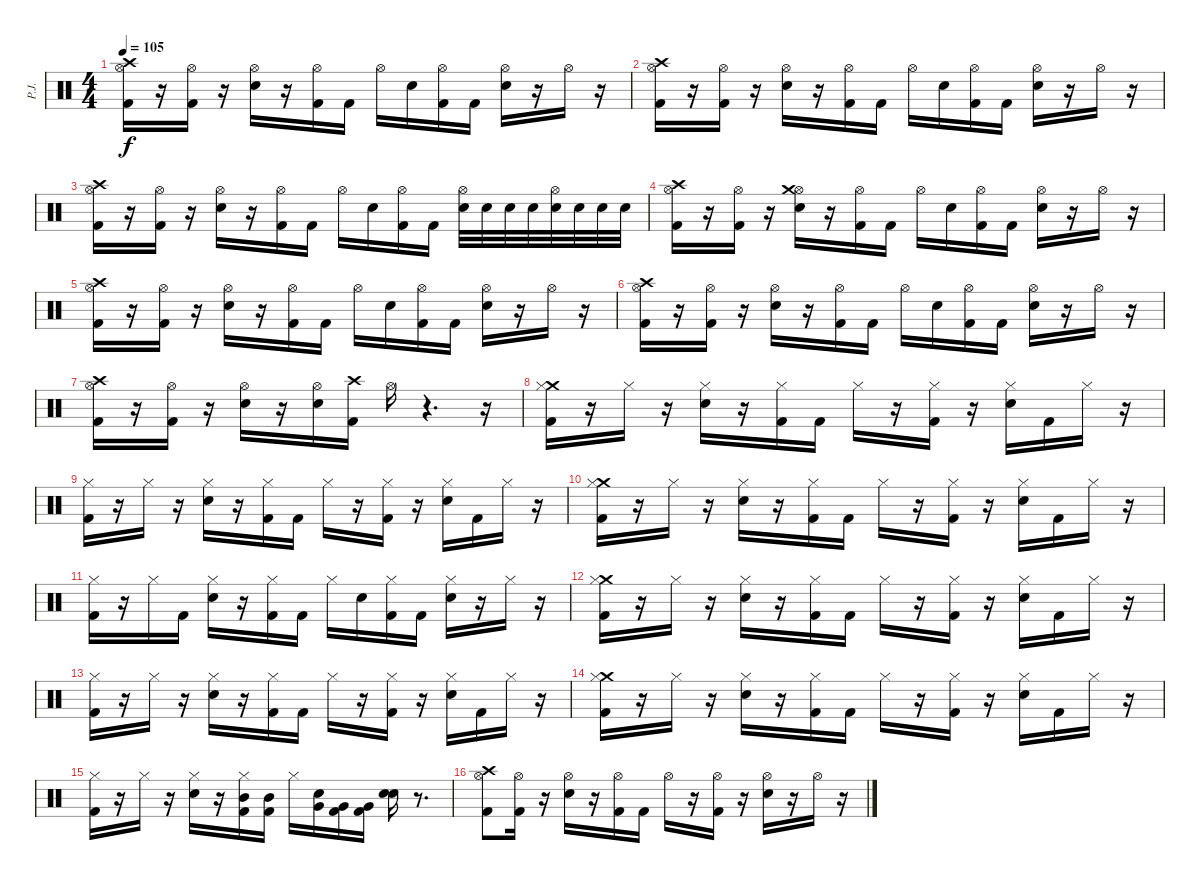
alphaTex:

\track ("P.J." "P.J.") {instrument percussion}
\staff {score}
\articulation defaults
\ts (4 4)
\tempo 105
\clef neutral
\ks c
("Crash high (hit)" "Hi-Hat (open)" "Kick (hit) 2").16{dy f} r.16 ("Kick (hit) 2" "Hi-Hat (open)").16 r.16 ("Electric Snare (hit)" "Hi-Hat (open)").16 r.16 ("Kick (hit) 2" "Hi-Hat (open)").16 "Kick (hit) 2".16 "Hi-Hat (open)".16 "Electric Snare (hit)".16 ("Kick (hit) 2" "Hi-Hat (open)").16 "Kick (hit) 2".16 ("Hi-Hat (open)" "Electric Snare (hit)").16 r.16 "Hi-Hat (open)".16 r.16 |
("Crash high (hit)" "Kick (hit) 2" "Hi-Hat (open)").16 r.16 ("Hi-Hat (open)" "Kick (hit) 2").16 r.16 ("Hi-Hat (open)" "Electric Snare (hit)").16 r.16 ("Kick (hit) 2" "Hi-Hat (open)").16 "Kick (hit) 2".16 "Hi-Hat (open)".16 "Electric Snare (hit)".16 ("Hi-Hat (open)" "Kick (hit) 2").16 "Kick (hit) 2".16 ("Electric Snare (hit)" "Hi-Hat (open)").16 r.16 "Hi-Hat (open)".16 r.16 |
("Hi-Hat (open)" "Kick (hit) 2" "Crash high (hit)").16 r.16 ("Kick (hit) 2" "Hi-Hat (open)").16 r.16 ("Hi-Hat (open)" "Electric Snare (hit)").16 r.16 ("Kick (hit) 2" "Hi-Hat (open)").16 "Kick (hit) 2".16 "Hi-Hat (open)".16 "Electric Snare (hit)".16 ("Hi-Hat (open)" "Kick (hit) 2").16 "Kick (hit) 2".16 ("Electric Snare (hit)" "Hi-Hat (open)").32 "Electric Snare (hit)".32 "Electric Snare (hit)".32 "Electric Snare (hit)".32 ("Electric Snare (hit)" "Hi-Hat (open)").32 "Electric Snare (hit)".32 "Electric Snare (hit)".32 "Electric Snare (hit)".32 |
("Hi-Hat (open)" "Kick (hit) 2" "Crash high (hit)").16 r.16 ("Kick (hit) 2" "Hi-Hat (open)").16 r.16 ("Hi-Hat (open)" "Electric Snare (hit)" "Crash medium (hit)").16 r.16 ("Hi-Hat (open)" "Kick (hit) 2").16 "Kick (hit) 2".16 "Hi-Hat (open)".16 "Electric Snare (hit)".16 ("Kick (hit) 2" "Hi-Hat (open)").16 "Kick (hit) 2".16 ("Hi-Hat (open)" "Electric Snare (hit)").16 r.16 "Hi-Hat (open)".16 r.16 |
("Kick (hit) 2" "Hi-Hat (open)" "Crash high (hit)").16 r.16 ("Kick (hit) 2" "Hi-Hat (open)").16 r.16 ("Hi-Hat (open)" "Electric Snare (hit)").16 r.16 ("Hi-Hat (open)" "Kick (hit) 2").16 "Kick (hit) 2".16 "Hi-Hat (open)".16 "Electric Snare (hit)".16 ("Kick (hit) 2" "Hi-Hat (open)").16 "Kick (hit) 2".16 ("Electric Snare (hit)" "Hi-Hat (open)").16 r.16 "Hi-Hat (open)".16 r.16 |
("Crash high (hit)" "Kick (hit) 2" "Hi-Hat (open)").16 r.16 ("Hi-Hat (open)" "Kick (hit) 2").16 r.16 ("Electric Snare (hit)" "Hi-Hat (open)").16 r.16 ("Hi-Hat (open)" "Kick (hit) 2").16 "Kick (hit) 2".16 "Hi-Hat (open)".16 "Electric Snare (hit)".16 ("Kick (hit) 2" "Hi-Hat (open)").16 "Kick (hit) 2".16 ("Hi-Hat (open)" "Electric Snare (hit)").16 r.16 "Hi-Hat (open)".16 r.16 |
("Hi-Hat (open)" "Kick (hit) 2" "Crash high (hit)").16 r.16 ("Hi-Hat (open)" "Kick (hit) 2").16 r.16 ("Electric Snare (hit)" "Hi-Hat (open)").16 r.16 ("Hi-Hat (open)" "Electric Snare (hit)").16 ("Kick (hit) 2" "Crash high (hit)").16 "Hi-Hat (open)".16 r.4{d} r.16 |
("Crash medium (hit)" "Kick (hit) 2" "Hi-Hat (closed)").16 r.16 "Hi-Hat (closed)".16 r.16 ("Electric Snare (hit)" "Hi-Hat (closed)").16 r.16 ("Kick (hit) 2" "Hi-Hat (closed)").16 "Kick (hit) 2".16 "Hi-Hat (closed)".16 r.16 ("Kick (hit) 2" "Hi-Hat (closed)").16 r.16 ("Electric Snare (hit)" "Hi-Hat (closed)").16 "Kick (hit) 2".16 "Hi-Hat (closed)".16 r.16 |
("Kick (hit) 2" "Hi-Hat (closed)").16 r.16 "Hi-Hat (closed)".16 r.16 ("Electric Snare (hit)" "Hi-Hat (closed)").16 r.16 ("Kick (hit) 2" "Hi-Hat (closed)").16 "Kick (hit) 2".16 "Hi-Hat (closed)".16 r.16 ("Kick (hit) 2" "Hi-Hat (closed)").16 r.16 ("Electric Snare (hit)" "Hi-Hat (closed)").16 "Kick (hit) 2".16 "Hi-Hat (closed)".16 r.16 |
("Kick (hit) 2" "Crash medium (hit)" "Hi-Hat (closed)").16 r.16 "Hi-Hat (closed)".16 r.16 ("Electric Snare (hit)" "Hi-Hat (closed)").16 r.16 ("Kick (hit) 2" "Hi-Hat (closed)").16 "Kick (hit) 2".16 "Hi-Hat (closed)".16 r.16 ("Kick (hit) 2" "Hi-Hat (closed)").16 r.16 ("Electric Snare (hit)" "Hi-Hat (closed)").16 "Kick (hit) 2".16 "Hi-Hat (closed)".16 r.16 |
("Kick (hit) 2" "Hi-Hat (closed)").16 r.16 "Hi-Hat (closed)".16 "Kick (hit) 2".16 ("Electric Snare (hit)" "Hi-Hat (closed)").16 r.16 ("Kick (hit) 2" "Hi-Hat (closed)").16 "Kick (hit) 2".16 "Hi-Hat (closed)".16 "Electric Snare (hit)".16 ("Kick (hit) 2" "Hi-Hat (closed)").16 "Kick (hit) 2".16 ("Electric Snare (hit)" "Hi-Hat (closed)").16 r.16 "Hi-Hat (closed)".16 r.16 |
("Kick (hit) 2" "Crash medium (hit)" "Hi-Hat (closed)").16 r.16 "Hi-Hat (closed)".16 r.16 ("Electric Snare (hit)" "Hi-Hat (closed)").16 r.16 ("Kick (hit) 2" "Hi-Hat (closed)").16 "Kick (hit) 2".16 "Hi-Hat (closed)".16 r.16 ("Kick (hit) 2" "Hi-Hat (closed)").16 r.16 ("Electric Snare (hit)" "Hi-Hat (closed)").16 "Kick (hit) 2".16 "Hi-Hat (closed)".16 r.16 |
("Hi-Hat (closed)" "Kick (hit) 2").16 r.16 "Hi-Hat (closed)".16 r.16 ("Hi-Hat (closed)" "Electric Snare (hit)").16 r.16 ("Hi-Hat (closed)" "Kick (hit) 2").16 "Kick (hit) 2".16 "Hi-Hat (closed)".16 r.16 ("Hi-Hat (closed)" "Kick (hit) 2").16 r.16 ("Electric Snare (hit)" "Hi-Hat (closed)").16 "Kick (hit) 2".16 "Hi-Hat (closed)".16 r.16 |
("Crash medium (hit)" "Kick (hit) 2" "Hi-Hat (closed)").16 r.16 "Hi-Hat (closed)".16 r.16 ("Hi-Hat (closed)" "Electric Snare (hit)").16 r.16 ("Kick (hit) 2" "Hi-Hat (closed)").16 "Kick (hit) 2".16 "Hi-Hat (closed)".16 r.16 ("Hi-Hat (closed)" "Kick (hit) 2").16 r.16 ("Electric Snare (hit)" "Hi-Hat (closed)").16 "Kick (hit) 2".16 "Hi-Hat (closed)".16 r.16 |
("Kick (hit) 2" "Hi-Hat (closed)").16 r.16 "Hi-Hat (closed)".16 r.16 ("Hi-Hat (closed)" "Electric Snare (hit)").16 r.16 ("Kick (hit) 2" "Hi-Hat (closed)" "Mid Tom (hit)").16 ("Mid Tom (hit)" "Kick (hit) 2").16 "Hi-Hat (closed)".16 ("Very Low Tom (hit)" "Electric Snare (hit)").16 ("Kick (hit) 2" "Very Low Tom (hit)").16 ("Kick (hit) 2" "Very Low Tom (hit)").16 ("Electric Snare (hit)" "Snare (hit) 2").16 r.8{d} |
("Crash high (hit)" "Hi-Hat (open)" "Kick (hit) 2").8 ("Hi-Hat (open)" "Kick (hit) 2").16 r.16 ("Electric Snare (hit)" "Hi-Hat (open)").16 r.16 ("Hi-Hat (open)" "Kick (hit) 2").16 "Kick (hit) 2".16 "Hi-Hat (open)".16 r.16 ("Kick (hit) 2" "Hi-Hat (open)").16 r.16 ("Electric Snare (hit)" "Hi-Hat (open)").16 r.16 "Hi-Hat (open)".16 r.16
